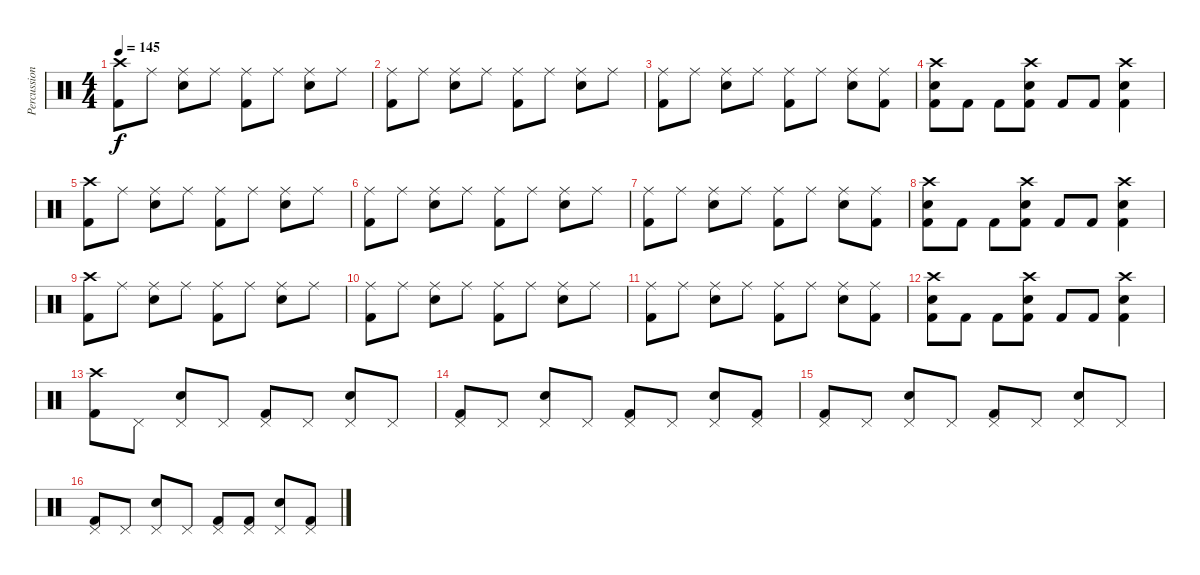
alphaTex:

\track ("Percussion" "Percussion") {instrument percussion}
\staff {score}
\articulation defaults
\ts (4 4)
\tempo 145
\clef neutral
\ks c
("Crash high (hit)" "Kick (hit) 2").8{dy f} "Ride (middle)".8 ("Ride (middle)" "Electric Snare (hit)").8 "Ride (middle)".8 ("Ride (middle)" "Kick (hit) 2").8 "Ride (middle)".8 ("Ride (middle)" "Electric Snare (hit)").8 "Ride (middle)".8 |
("Ride (middle)" "Kick (hit) 2").8 "Ride (middle)".8 ("Ride (middle)" "Electric Snare (hit)").8 "Ride (middle)".8 ("Ride (middle)" "Kick (hit) 2").8 "Ride (middle)".8 ("Ride (middle)" "Electric Snare (hit)").8 "Ride (middle)".8 |
("Ride (middle)" "Kick (hit) 2").8 "Ride (middle)".8 ("Ride (middle)" "Electric Snare (hit)").8 "Ride (middle)".8 ("Ride (middle)" "Kick (hit) 2").8 "Ride (middle)".8 ("Ride (middle)" "Electric Snare (hit)").8 ("Ride (middle)" "Kick (hit) 2").8 |
("Crash high (hit)" "Electric Snare (hit)" "Kick (hit) 2").8 "Kick (hit) 2".8 "Kick (hit) 2".8 ("Crash high (hit)" "Electric Snare (hit)" "Kick (hit) 2").8 "Kick (hit) 2".8 "Kick (hit) 2".8 ("Crash high (hit)" "Electric Snare (hit)" "Kick (hit) 2").4 |
("Crash high (hit)" "Kick (hit) 2").8 "Ride (middle)".8 ("Ride (middle)" "Electric Snare (hit)").8 "Ride (middle)".8 ("Ride (middle)" "Kick (hit) 2").8 "Ride (middle)".8 ("Ride (middle)" "Electric Snare (hit)").8 "Ride (middle)".8 |
("Ride (middle)" "Kick (hit) 2").8 "Ride (middle)".8 ("Ride (middle)" "Electric Snare (hit)").8 "Ride (middle)".8 ("Ride (middle)" "Kick (hit) 2").8 "Ride (middle)".8 ("Ride (middle)" "Electric Snare (hit)").8 "Ride (middle)".8 |
("Ride (middle)" "Kick (hit) 2").8 "Ride (middle)".8 ("Ride (middle)" "Electric Snare (hit)").8 "Ride (middle)".8 ("Ride (middle)" "Kick (hit) 2").8 "Ride (middle)".8 ("Ride (middle)" "Electric Snare (hit)").8 ("Ride (middle)" "Kick (hit) 2").8 |
("Crash high (hit)" "Electric Snare (hit)" "Kick (hit) 2").8 "Kick (hit) 2".8 "Kick (hit) 2".8 ("Crash high (hit)" "Electric Snare (hit)" "Kick (hit) 2").8 "Kick (hit) 2".8 "Kick (hit) 2".8 ("Crash high (hit)" "Electric Snare (hit)" "Kick (hit) 2").4 |
("Crash high (hit)" "Kick (hit) 2").8 "Ride (middle)".8 ("Ride (middle)" "Electric Snare (hit)").8 "Ride (middle)".8 ("Ride (middle)" "Kick (hit) 2").8 "Ride (middle)".8 ("Ride (middle)" "Electric Snare (hit)").8 "Ride (middle)".8 |
("Ride (middle)" "Kick (hit) 2").8 "Ride (middle)".8 ("Ride (middle)" "Electric Snare (hit)").8 "Ride (middle)".8 ("Ride (middle)" "Kick (hit) 2").8 "Ride (middle)".8 ("Ride (middle)" "Electric Snare (hit)").8 "Ride (middle)".8 |
("Ride (middle)" "Kick (hit) 2").8 "Ride (middle)".8 ("Ride (middle)" "Electric Snare (hit)").8 "Ride (middle)".8 ("Ride (middle)" "Kick (hit) 2").8 "Ride (middle)".8 ("Ride (middle)" "Electric Snare (hit)").8 ("Ride (middle)" "Kick (hit) 2").8 |
("Crash high (hit)" "Electric Snare (hit)" "Kick (hit) 2").8 "Kick (hit) 2".8 "Kick (hit) 2".8 ("Crash high (hit)" "Electric Snare (hit)" "Kick (hit) 2").8 "Kick (hit) 2".8 "Kick (hit) 2".8 ("Crash high (hit)" "Electric Snare (hit)" "Kick (hit) 2").4 |
("Crash high (hit)" "Kick (hit) 2").8 "Pedal Hi-Hat (hit)".8 ("Pedal Hi-Hat (hit)" "Electric Snare (hit)").8 "Pedal Hi-Hat (hit)".8 ("Pedal Hi-Hat (hit)" "Kick (hit) 2").8 "Pedal Hi-Hat (hit)".8 ("Pedal Hi-Hat (hit)" "Electric Snare (hit)").8 "Pedal Hi-Hat (hit)".8 |
("Pedal Hi-Hat (hit)" "Kick (hit) 2").8 "Pedal Hi-Hat (hit)".8 ("Pedal Hi-Hat (hit)" "Electric Snare (hit)").8 "Pedal Hi-Hat (hit)".8 ("Pedal Hi-Hat (hit)" "Kick (hit) 2").8 "Pedal Hi-Hat (hit)".8 ("Pedal Hi-Hat (hit)" "Electric Snare (hit)").8 ("Pedal Hi-Hat (hit)" "Kick (hit) 2").8 |
("Pedal Hi-Hat (hit)" "Kick (hit) 2").8 "Pedal Hi-Hat (hit)".8 ("Pedal Hi-Hat (hit)" "Electric Snare (hit)").8 "Pedal Hi-Hat (hit)".8 ("Pedal Hi-Hat (hit)" "Kick (hit) 2").8 "Pedal Hi-Hat (hit)".8 ("Pedal Hi-Hat (hit)" "Electric Snare (hit)").8 "Pedal Hi-Hat (hit)".8 |
("Pedal Hi-Hat (hit)" "Kick (hit) 2").8 "Pedal Hi-Hat (hit)".8 ("Pedal Hi-Hat (hit)" "Electric Snare (hit)").8 "Pedal Hi-Hat (hit)".8 ("Pedal Hi-Hat (hit)" "Kick (hit) 2").8 ("Pedal Hi-Hat (hit)" "Kick (hit) 2").8 ("Pedal Hi-Hat (hit)" "Electric Snare (hit)").8 ("Pedal Hi-Hat (hit)" "Kick (hit) 2").8
